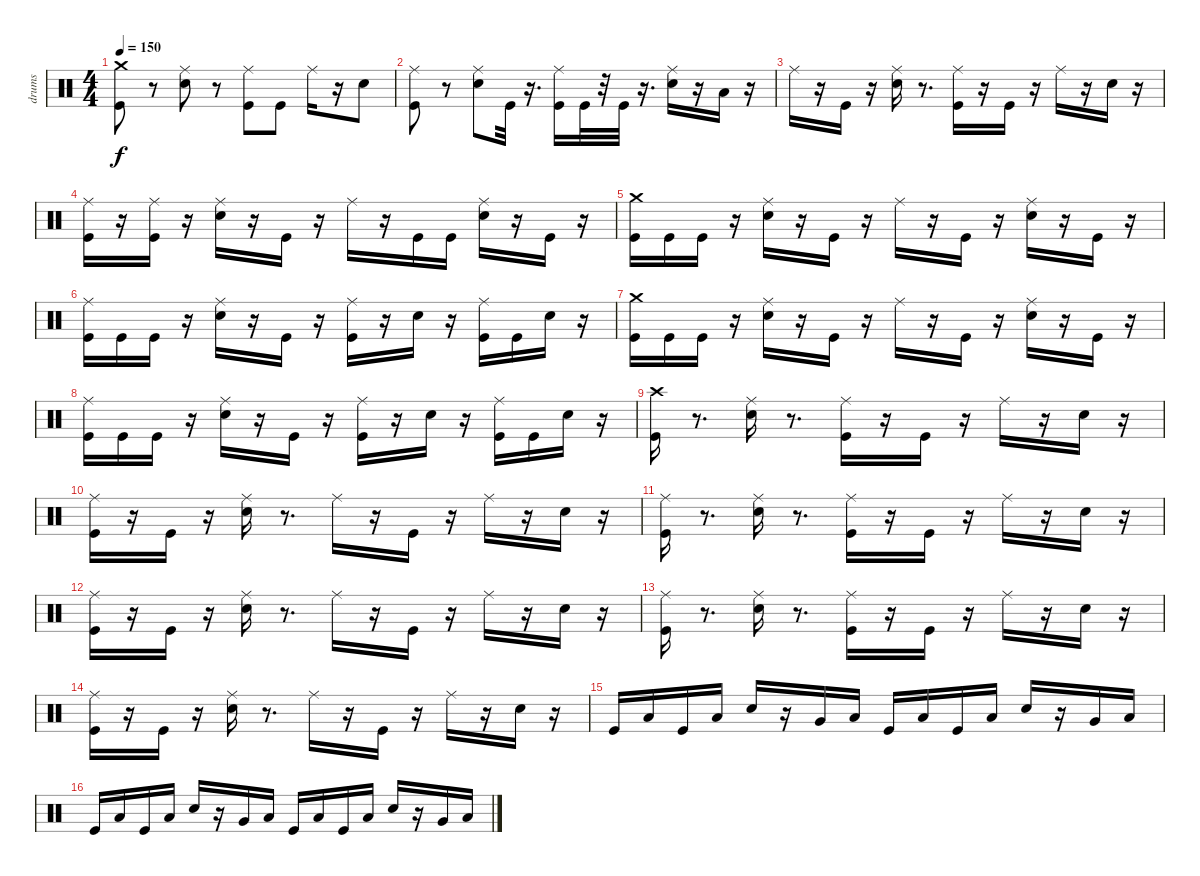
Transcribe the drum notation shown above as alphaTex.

\track ("drums" "drums") {instrument percussion}
\staff {score}
\articulation defaults
\ts (4 4)
\tempo 150
\clef neutral
\ks c
("Crash medium (hit)" "Kick (hit)").8{dy f} r.8 ("Ride (middle)" "Electric Snare (hit)").8 r.8 ("Ride (middle)" "Kick (hit)").8 "Kick (hit)".8 "Ride (middle)".16 r.16 "Electric Snare (hit)".8 |
("Ride (middle)" "Kick (hit)").8 r.8 ("Ride (middle)" "Electric Snare (hit)").8 "Kick (hit)".32 r.16{d} ("Ride (middle)" "Kick (hit)").16 "Kick (hit)".32 r.32 "Kick (hit)".32 r.16{d} ("Ride (middle)" "Electric Snare (hit)").16 r.16 "Low Tom (hit)".16 r.16 |
"Ride (middle)".16 r.16 "Kick (hit)".16 r.16 ("Ride (middle)" "Electric Snare (hit)").16 r.8{d} ("Ride (middle)" "Kick (hit)").16 r.16 "Kick (hit)".16 r.16 "Ride (middle)".16 r.16 "Electric Snare (hit)".16 r.16 |
("Ride (middle)" "Kick (hit)").16 r.16 ("Ride (middle)" "Kick (hit)").16 r.16 ("Ride (middle)" "Electric Snare (hit)").16 r.16 "Kick (hit)".16 r.16 "Ride (middle)".16 r.16 "Kick (hit)".16 "Kick (hit)".16 ("Ride (middle)" "Electric Snare (hit)").16 r.16 "Kick (hit)".16 r.16 |
("Crash medium (hit)" "Kick (hit)").16 "Kick (hit)".16 "Kick (hit)".16 r.16 ("Ride (middle)" "Electric Snare (hit)").16 r.16 "Kick (hit)".16 r.16 "Ride (middle)".16 r.16 "Kick (hit)".16 r.16 ("Ride (middle)" "Electric Snare (hit)").16 r.16 "Kick (hit)".16 r.16 |
("Ride (middle)" "Kick (hit)").16 "Kick (hit)".16 "Kick (hit)".16 r.16 ("Ride (middle)" "Electric Snare (hit)").16 r.16 "Kick (hit)".16 r.16 ("Ride (middle)" "Kick (hit)").16 r.16 "Electric Snare (hit)".16 r.16 ("Ride (middle)" "Kick (hit)").16 "Kick (hit)".16 "Electric Snare (hit)".16 r.16 |
("Crash medium (hit)" "Kick (hit)").16 "Kick (hit)".16 "Kick (hit)".16 r.16 ("Ride (middle)" "Electric Snare (hit)").16 r.16 "Kick (hit)".16 r.16 "Ride (middle)".16 r.16 "Kick (hit)".16 r.16 ("Ride (middle)" "Electric Snare (hit)").16 r.16 "Kick (hit)".16 r.16 |
("Ride (middle)" "Kick (hit)").16 "Kick (hit)".16 "Kick (hit)".16 r.16 ("Ride (middle)" "Electric Snare (hit)").16 r.16 "Kick (hit)".16 r.16 ("Ride (middle)" "Kick (hit)").16 r.16 "Electric Snare (hit)".16 r.16 ("Ride (middle)" "Kick (hit)").16 "Kick (hit)".16 "Electric Snare (hit)".16 r.16 |
("Crash high (hit)" "Kick (hit)").16 r.8{d} ("Ride (middle)" "Electric Snare (hit)").16 r.8{d} ("Ride (middle)" "Kick (hit)").16 r.16 "Kick (hit)".16 r.16 "Ride (middle)".16 r.16 "Electric Snare (hit)".16 r.16 |
("Kick (hit)" "Ride (middle)").16 r.16 "Kick (hit)".16 r.16 ("Ride (middle)" "Electric Snare (hit)").16 r.8{d} "Ride (middle)".16 r.16 "Kick (hit)".16 r.16 "Ride (middle)".16 r.16 "Electric Snare (hit)".16 r.16 |
("Ride (middle)" "Kick (hit)").16 r.8{d} ("Ride (middle)" "Electric Snare (hit)").16 r.8{d} ("Ride (middle)" "Kick (hit)").16 r.16 "Kick (hit)".16 r.16 "Ride (middle)".16 r.16 "Electric Snare (hit)".16 r.16 |
("Kick (hit)" "Ride (middle)").16 r.16 "Kick (hit)".16 r.16 ("Ride (middle)" "Electric Snare (hit)").16 r.8{d} "Ride (middle)".16 r.16 "Kick (hit)".16 r.16 "Ride (middle)".16 r.16 "Electric Snare (hit)".16 r.16 |
("Ride (middle)" "Kick (hit)").16 r.8{d} ("Ride (middle)" "Electric Snare (hit)").16 r.8{d} ("Ride (middle)" "Kick (hit)").16 r.16 "Kick (hit)".16 r.16 "Ride (middle)".16 r.16 "Electric Snare (hit)".16 r.16 |
("Kick (hit)" "Ride (middle)").16 r.16 "Kick (hit)".16 r.16 ("Ride (middle)" "Electric Snare (hit)").16 r.8{d} "Ride (middle)".16 r.16 "Kick (hit)".16 r.16 "Ride (middle)".16 r.16 "Electric Snare (hit)".16 r.16 |
"Kick (hit)".16 "Low Tom (hit)".16 "Kick (hit)".16 "Low Floor Tom (hit)".16 "Electric Snare (hit)".16 r.16 "Very Low Tom (hit)".16 "Low Floor Tom (hit)".16 "Kick (hit)".16 "Low Tom (hit)".16 "Kick (hit)".16 "Low Floor Tom (hit)".16 "Electric Snare (hit)".16 r.16 "Very Low Tom (hit)".16 "Low Floor Tom (hit)".16 |
"Kick (hit)".16 "Low Tom (hit)".16 "Kick (hit)".16 "Low Floor Tom (hit)".16 "Electric Snare (hit)".16 r.16 "Very Low Tom (hit)".16 "Low Floor Tom (hit)".16 "Kick (hit)".16 "Low Tom (hit)".16 "Kick (hit)".16 "Low Floor Tom (hit)".16 "Electric Snare (hit)".16 r.16 "Very Low Tom (hit)".16 "Low Floor Tom (hit)".16
